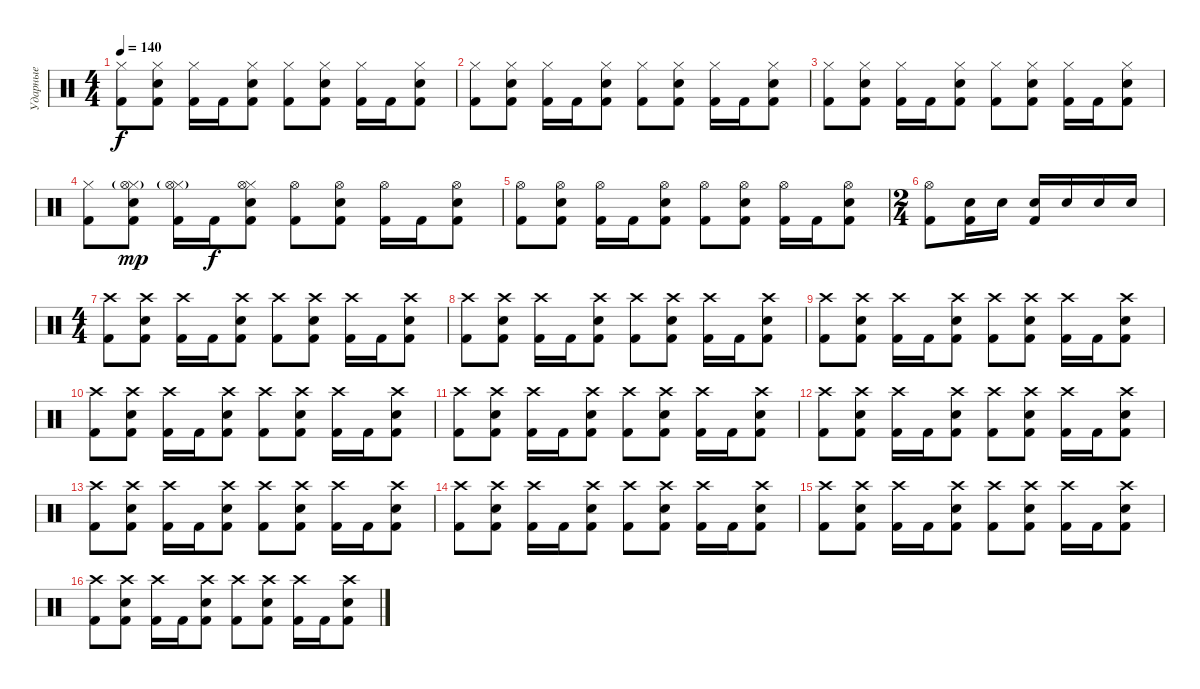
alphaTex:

\track ("Ударные" "Ударные") {instrument percussion}
\staff {score}
\articulation defaults
\ts (4 4)
\tempo 140
\clef neutral
\ks c
("Hi-Hat (closed)" "Kick (hit) 2").8{dy f} ("Hi-Hat (closed)" "Electric Snare (hit)" "Kick (hit) 2").8 ("Hi-Hat (closed)" "Kick (hit) 2").16 "Kick (hit) 2".16 ("Hi-Hat (closed)" "Electric Snare (hit)" "Kick (hit) 2").8 ("Hi-Hat (closed)" "Kick (hit) 2").8 ("Hi-Hat (closed)" "Electric Snare (hit)" "Kick (hit) 2").8 ("Hi-Hat (closed)" "Kick (hit) 2").16 "Kick (hit) 2".16 ("Hi-Hat (closed)" "Electric Snare (hit)" "Kick (hit) 2").8 |
("Hi-Hat (closed)" "Kick (hit) 2").8 ("Hi-Hat (closed)" "Electric Snare (hit)" "Kick (hit) 2").8 ("Hi-Hat (closed)" "Kick (hit) 2").16 "Kick (hit) 2".16 ("Hi-Hat (closed)" "Electric Snare (hit)" "Kick (hit) 2").8 ("Hi-Hat (closed)" "Kick (hit) 2").8 ("Hi-Hat (closed)" "Electric Snare (hit)" "Kick (hit) 2").8 ("Hi-Hat (closed)" "Kick (hit) 2").16 "Kick (hit) 2".16 ("Hi-Hat (closed)" "Electric Snare (hit)" "Kick (hit) 2").8 |
("Hi-Hat (closed)" "Kick (hit) 2").8 ("Hi-Hat (closed)" "Electric Snare (hit)" "Kick (hit) 2").8 ("Hi-Hat (closed)" "Kick (hit) 2").16 "Kick (hit) 2".16 ("Hi-Hat (closed)" "Electric Snare (hit)" "Kick (hit) 2").8 ("Hi-Hat (closed)" "Kick (hit) 2").8 ("Hi-Hat (closed)" "Electric Snare (hit)" "Kick (hit) 2").8 ("Hi-Hat (closed)" "Kick (hit) 2").16 "Kick (hit) 2".16 ("Hi-Hat (closed)" "Electric Snare (hit)" "Kick (hit) 2").8 |
("Hi-Hat (closed)" "Kick (hit) 2").8 ("Hi-Hat (closed)" "Hi-Hat (open)"{g} "Electric Snare (hit)" "Kick (hit) 2").8{dy mp} ("Hi-Hat (closed)" "Hi-Hat (open)"{g} "Kick (hit) 2").16 "Kick (hit) 2".16{dy f} ("Hi-Hat (closed)" "Hi-Hat (open)" "Electric Snare (hit)" "Kick (hit) 2").8 ("Hi-Hat (open)" "Kick (hit) 2").8 ("Hi-Hat (open)" "Electric Snare (hit)" "Kick (hit) 2").8 ("Hi-Hat (open)" "Kick (hit) 2").16 "Kick (hit) 2".16 ("Hi-Hat (open)" "Electric Snare (hit)" "Kick (hit) 2").8 |
("Hi-Hat (open)" "Kick (hit) 2").8 ("Hi-Hat (open)" "Electric Snare (hit)" "Kick (hit) 2").8 ("Hi-Hat (open)" "Kick (hit) 2").16 "Kick (hit) 2".16 ("Hi-Hat (open)" "Electric Snare (hit)" "Kick (hit) 2").8 ("Hi-Hat (open)" "Kick (hit) 2").8 ("Hi-Hat (open)" "Electric Snare (hit)" "Kick (hit) 2").8 ("Hi-Hat (open)" "Kick (hit) 2").16 "Kick (hit) 2".16 ("Hi-Hat (open)" "Electric Snare (hit)" "Kick (hit) 2").8 |
\ts (2 4)
("Hi-Hat (open)" "Kick (hit) 2").8 ("Electric Snare (hit)" "Kick (hit) 2").16 "Electric Snare (hit)".16 ("Electric Snare (hit)" "Kick (hit) 2").16 "Electric Snare (hit)".16 "Electric Snare (hit)".16 "Electric Snare (hit)".16 |
\ts (4 4)
("Crash high (hit)" "Kick (hit) 2").8 ("Crash high (hit)" "Electric Snare (hit)" "Kick (hit) 2").8 ("Crash high (hit)" "Kick (hit) 2").16 "Kick (hit) 2".16 ("Crash high (hit)" "Electric Snare (hit)" "Kick (hit) 2").8 ("Crash high (hit)" "Kick (hit) 2").8 ("Crash high (hit)" "Electric Snare (hit)" "Kick (hit) 2").8 ("Crash high (hit)" "Kick (hit) 2").16 "Kick (hit) 2".16 ("Crash high (hit)" "Electric Snare (hit)" "Kick (hit) 2").8 |
("Crash high (hit)" "Kick (hit) 2").8 ("Crash high (hit)" "Electric Snare (hit)" "Kick (hit) 2").8 ("Crash high (hit)" "Kick (hit) 2").16 "Kick (hit) 2".16 ("Crash high (hit)" "Electric Snare (hit)" "Kick (hit) 2").8 ("Crash high (hit)" "Kick (hit) 2").8 ("Crash high (hit)" "Electric Snare (hit)" "Kick (hit) 2").8 ("Crash high (hit)" "Kick (hit) 2").16 "Kick (hit) 2".16 ("Crash high (hit)" "Electric Snare (hit)" "Kick (hit) 2").8 |
("Crash high (hit)" "Kick (hit) 2").8 ("Crash high (hit)" "Electric Snare (hit)" "Kick (hit) 2").8 ("Crash high (hit)" "Kick (hit) 2").16 "Kick (hit) 2".16 ("Crash high (hit)" "Electric Snare (hit)" "Kick (hit) 2").8 ("Crash high (hit)" "Kick (hit) 2").8 ("Crash high (hit)" "Electric Snare (hit)" "Kick (hit) 2").8 ("Crash high (hit)" "Kick (hit) 2").16 "Kick (hit) 2".16 ("Crash high (hit)" "Electric Snare (hit)" "Kick (hit) 2").8 |
("Crash high (hit)" "Kick (hit) 2").8 ("Crash high (hit)" "Electric Snare (hit)" "Kick (hit) 2").8 ("Crash high (hit)" "Kick (hit) 2").16 "Kick (hit) 2".16 ("Crash high (hit)" "Electric Snare (hit)" "Kick (hit) 2").8 ("Crash high (hit)" "Kick (hit) 2").8 ("Crash high (hit)" "Electric Snare (hit)" "Kick (hit) 2").8 ("Crash high (hit)" "Kick (hit) 2").16 "Kick (hit) 2".16 ("Crash high (hit)" "Electric Snare (hit)" "Kick (hit) 2").8 |
("Crash high (hit)" "Kick (hit) 2").8 ("Crash high (hit)" "Electric Snare (hit)" "Kick (hit) 2").8 ("Crash high (hit)" "Kick (hit) 2").16 "Kick (hit) 2".16 ("Crash high (hit)" "Electric Snare (hit)" "Kick (hit) 2").8 ("Crash high (hit)" "Kick (hit) 2").8 ("Crash high (hit)" "Electric Snare (hit)" "Kick (hit) 2").8 ("Crash high (hit)" "Kick (hit) 2").16 "Kick (hit) 2".16 ("Crash high (hit)" "Electric Snare (hit)" "Kick (hit) 2").8 |
("Crash high (hit)" "Kick (hit) 2").8 ("Crash high (hit)" "Electric Snare (hit)" "Kick (hit) 2").8 ("Crash high (hit)" "Kick (hit) 2").16 "Kick (hit) 2".16 ("Crash high (hit)" "Electric Snare (hit)" "Kick (hit) 2").8 ("Crash high (hit)" "Kick (hit) 2").8 ("Crash high (hit)" "Electric Snare (hit)" "Kick (hit) 2").8 ("Crash high (hit)" "Kick (hit) 2").16 "Kick (hit) 2".16 ("Crash high (hit)" "Electric Snare (hit)" "Kick (hit) 2").8 |
("Crash high (hit)" "Kick (hit) 2").8 ("Crash high (hit)" "Electric Snare (hit)" "Kick (hit) 2").8 ("Crash high (hit)" "Kick (hit) 2").16 "Kick (hit) 2".16 ("Crash high (hit)" "Electric Snare (hit)" "Kick (hit) 2").8 ("Crash high (hit)" "Kick (hit) 2").8 ("Crash high (hit)" "Electric Snare (hit)" "Kick (hit) 2").8 ("Crash high (hit)" "Kick (hit) 2").16 "Kick (hit) 2".16 ("Crash high (hit)" "Electric Snare (hit)" "Kick (hit) 2").8 |
("Crash high (hit)" "Kick (hit) 2").8 ("Crash high (hit)" "Electric Snare (hit)" "Kick (hit) 2").8 ("Crash high (hit)" "Kick (hit) 2").16 "Kick (hit) 2".16 ("Crash high (hit)" "Electric Snare (hit)" "Kick (hit) 2").8 ("Crash high (hit)" "Kick (hit) 2").8 ("Crash high (hit)" "Electric Snare (hit)" "Kick (hit) 2").8 ("Crash high (hit)" "Kick (hit) 2").16 "Kick (hit) 2".16 ("Crash high (hit)" "Electric Snare (hit)" "Kick (hit) 2").8 |
("Crash high (hit)" "Kick (hit) 2").8 ("Crash high (hit)" "Electric Snare (hit)" "Kick (hit) 2").8 ("Crash high (hit)" "Kick (hit) 2").16 "Kick (hit) 2".16 ("Crash high (hit)" "Electric Snare (hit)" "Kick (hit) 2").8 ("Crash high (hit)" "Kick (hit) 2").8 ("Crash high (hit)" "Electric Snare (hit)" "Kick (hit) 2").8 ("Crash high (hit)" "Kick (hit) 2").16 "Kick (hit) 2".16 ("Crash high (hit)" "Electric Snare (hit)" "Kick (hit) 2").8 |
("Crash high (hit)" "Kick (hit) 2").8 ("Crash high (hit)" "Electric Snare (hit)" "Kick (hit) 2").8 ("Crash high (hit)" "Kick (hit) 2").16 "Kick (hit) 2".16 ("Crash high (hit)" "Electric Snare (hit)" "Kick (hit) 2").8 ("Crash high (hit)" "Kick (hit) 2").8 ("Crash high (hit)" "Electric Snare (hit)" "Kick (hit) 2").8 ("Crash high (hit)" "Kick (hit) 2").16 "Kick (hit) 2".16 ("Crash high (hit)" "Electric Snare (hit)" "Kick (hit) 2").8
